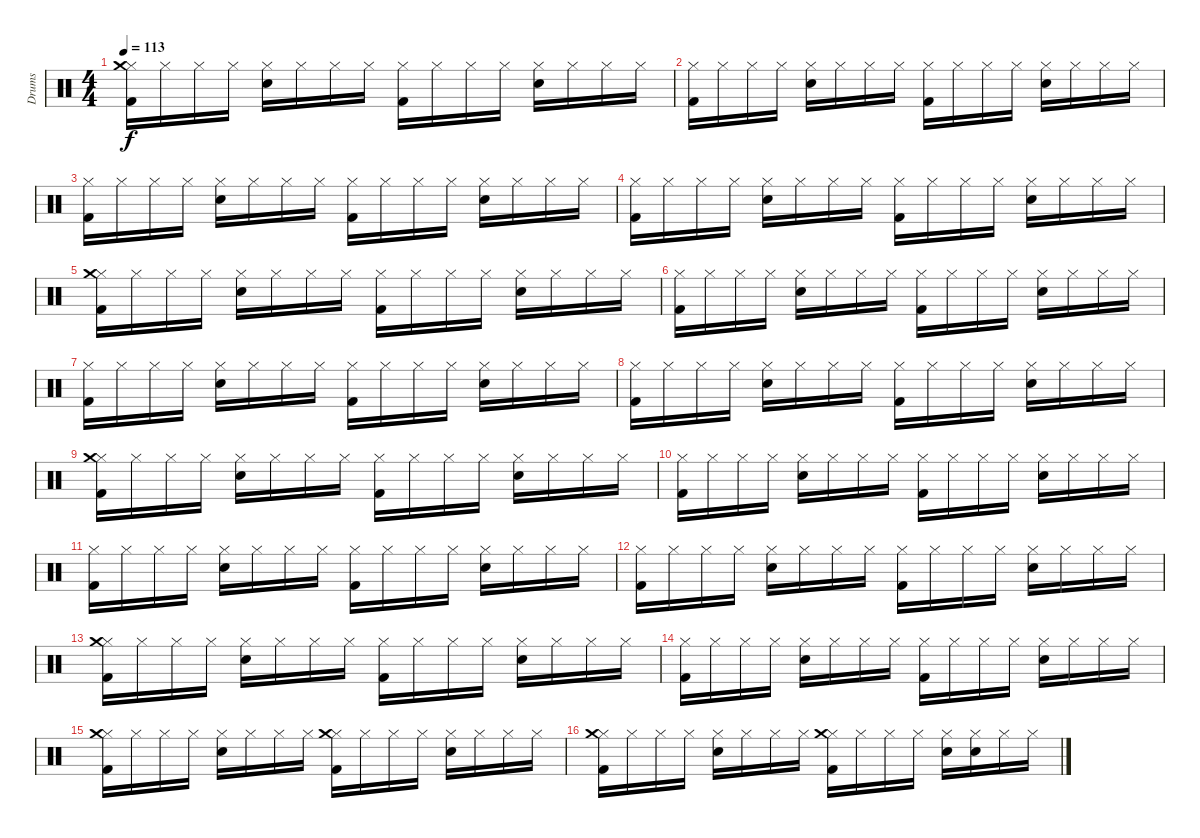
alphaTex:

\track ("Drums" "Drums") {instrument percussion}
\staff {score}
\articulation defaults
\ts (4 4)
\tempo 113
\clef neutral
\ks c
("Hi-Hat (closed)" "Kick (hit) 2" "Crash medium (hit)").16{dy f} "Hi-Hat (closed)".16 "Hi-Hat (closed)".16 "Hi-Hat (closed)".16 ("Hi-Hat (closed)" "Electric Snare (hit)").16 "Hi-Hat (closed)".16 "Hi-Hat (closed)".16 "Hi-Hat (closed)".16 ("Hi-Hat (closed)" "Kick (hit) 2").16 "Hi-Hat (closed)".16 "Hi-Hat (closed)".16 "Hi-Hat (closed)".16 ("Hi-Hat (closed)" "Electric Snare (hit)").16 "Hi-Hat (closed)".16 "Hi-Hat (closed)".16 "Hi-Hat (closed)".16 |
("Hi-Hat (closed)" "Kick (hit) 2").16 "Hi-Hat (closed)".16 "Hi-Hat (closed)".16 "Hi-Hat (closed)".16 ("Hi-Hat (closed)" "Electric Snare (hit)").16 "Hi-Hat (closed)".16 "Hi-Hat (closed)".16 "Hi-Hat (closed)".16 ("Hi-Hat (closed)" "Kick (hit) 2").16 "Hi-Hat (closed)".16 "Hi-Hat (closed)".16 "Hi-Hat (closed)".16 ("Hi-Hat (closed)" "Electric Snare (hit)").16 "Hi-Hat (closed)".16 "Hi-Hat (closed)".16 "Hi-Hat (closed)".16 |
("Hi-Hat (closed)" "Kick (hit) 2").16 "Hi-Hat (closed)".16 "Hi-Hat (closed)".16 "Hi-Hat (closed)".16 ("Hi-Hat (closed)" "Electric Snare (hit)").16 "Hi-Hat (closed)".16 "Hi-Hat (closed)".16 "Hi-Hat (closed)".16 ("Hi-Hat (closed)" "Kick (hit) 2").16 "Hi-Hat (closed)".16 "Hi-Hat (closed)".16 "Hi-Hat (closed)".16 ("Hi-Hat (closed)" "Electric Snare (hit)").16 "Hi-Hat (closed)".16 "Hi-Hat (closed)".16 "Hi-Hat (closed)".16 |
("Hi-Hat (closed)" "Kick (hit) 2").16 "Hi-Hat (closed)".16 "Hi-Hat (closed)".16 "Hi-Hat (closed)".16 ("Hi-Hat (closed)" "Electric Snare (hit)").16 "Hi-Hat (closed)".16 "Hi-Hat (closed)".16 "Hi-Hat (closed)".16 ("Hi-Hat (closed)" "Kick (hit) 2").16 "Hi-Hat (closed)".16 "Hi-Hat (closed)".16 "Hi-Hat (closed)".16 ("Hi-Hat (closed)" "Electric Snare (hit)").16 "Hi-Hat (closed)".16 "Hi-Hat (closed)".16 "Hi-Hat (closed)".16 |
("Hi-Hat (closed)" "Kick (hit) 2" "Crash medium (hit)").16 "Hi-Hat (closed)".16 "Hi-Hat (closed)".16 "Hi-Hat (closed)".16 ("Hi-Hat (closed)" "Electric Snare (hit)").16 "Hi-Hat (closed)".16 "Hi-Hat (closed)".16 "Hi-Hat (closed)".16 ("Hi-Hat (closed)" "Kick (hit) 2").16 "Hi-Hat (closed)".16 "Hi-Hat (closed)".16 "Hi-Hat (closed)".16 ("Hi-Hat (closed)" "Electric Snare (hit)").16 "Hi-Hat (closed)".16 "Hi-Hat (closed)".16 "Hi-Hat (closed)".16 |
("Hi-Hat (closed)" "Kick (hit) 2").16 "Hi-Hat (closed)".16 "Hi-Hat (closed)".16 "Hi-Hat (closed)".16 ("Hi-Hat (closed)" "Electric Snare (hit)").16 "Hi-Hat (closed)".16 "Hi-Hat (closed)".16 "Hi-Hat (closed)".16 ("Hi-Hat (closed)" "Kick (hit) 2").16 "Hi-Hat (closed)".16 "Hi-Hat (closed)".16 "Hi-Hat (closed)".16 ("Hi-Hat (closed)" "Electric Snare (hit)").16 "Hi-Hat (closed)".16 "Hi-Hat (closed)".16 "Hi-Hat (closed)".16 |
("Hi-Hat (closed)" "Kick (hit) 2").16 "Hi-Hat (closed)".16 "Hi-Hat (closed)".16 "Hi-Hat (closed)".16 ("Hi-Hat (closed)" "Electric Snare (hit)").16 "Hi-Hat (closed)".16 "Hi-Hat (closed)".16 "Hi-Hat (closed)".16 ("Hi-Hat (closed)" "Kick (hit) 2").16 "Hi-Hat (closed)".16 "Hi-Hat (closed)".16 "Hi-Hat (closed)".16 ("Hi-Hat (closed)" "Electric Snare (hit)").16 "Hi-Hat (closed)".16 "Hi-Hat (closed)".16 "Hi-Hat (closed)".16 |
("Hi-Hat (closed)" "Kick (hit) 2").16 "Hi-Hat (closed)".16 "Hi-Hat (closed)".16 "Hi-Hat (closed)".16 ("Hi-Hat (closed)" "Electric Snare (hit)").16 "Hi-Hat (closed)".16 "Hi-Hat (closed)".16 "Hi-Hat (closed)".16 ("Hi-Hat (closed)" "Kick (hit) 2").16 "Hi-Hat (closed)".16 "Hi-Hat (closed)".16 "Hi-Hat (closed)".16 ("Hi-Hat (closed)" "Electric Snare (hit)").16 "Hi-Hat (closed)".16 "Hi-Hat (closed)".16 "Hi-Hat (closed)".16 |
("Hi-Hat (closed)" "Kick (hit) 2" "Crash medium (hit)").16 "Hi-Hat (closed)".16 "Hi-Hat (closed)".16 "Hi-Hat (closed)".16 ("Hi-Hat (closed)" "Electric Snare (hit)").16 "Hi-Hat (closed)".16 "Hi-Hat (closed)".16 "Hi-Hat (closed)".16 ("Hi-Hat (closed)" "Kick (hit) 2").16 "Hi-Hat (closed)".16 "Hi-Hat (closed)".16 "Hi-Hat (closed)".16 ("Hi-Hat (closed)" "Electric Snare (hit)").16 "Hi-Hat (closed)".16 "Hi-Hat (closed)".16 "Hi-Hat (closed)".16 |
("Hi-Hat (closed)" "Kick (hit) 2").16 "Hi-Hat (closed)".16 "Hi-Hat (closed)".16 "Hi-Hat (closed)".16 ("Hi-Hat (closed)" "Electric Snare (hit)").16 "Hi-Hat (closed)".16 "Hi-Hat (closed)".16 "Hi-Hat (closed)".16 ("Hi-Hat (closed)" "Kick (hit) 2").16 "Hi-Hat (closed)".16 "Hi-Hat (closed)".16 "Hi-Hat (closed)".16 ("Hi-Hat (closed)" "Electric Snare (hit)").16 "Hi-Hat (closed)".16 "Hi-Hat (closed)".16 "Hi-Hat (closed)".16 |
("Hi-Hat (closed)" "Kick (hit) 2").16 "Hi-Hat (closed)".16 "Hi-Hat (closed)".16 "Hi-Hat (closed)".16 ("Hi-Hat (closed)" "Electric Snare (hit)").16 "Hi-Hat (closed)".16 "Hi-Hat (closed)".16 "Hi-Hat (closed)".16 ("Hi-Hat (closed)" "Kick (hit) 2").16 "Hi-Hat (closed)".16 "Hi-Hat (closed)".16 "Hi-Hat (closed)".16 ("Hi-Hat (closed)" "Electric Snare (hit)").16 "Hi-Hat (closed)".16 "Hi-Hat (closed)".16 "Hi-Hat (closed)".16 |
("Hi-Hat (closed)" "Kick (hit) 2").16 "Hi-Hat (closed)".16 "Hi-Hat (closed)".16 "Hi-Hat (closed)".16 ("Hi-Hat (closed)" "Electric Snare (hit)").16 "Hi-Hat (closed)".16 "Hi-Hat (closed)".16 "Hi-Hat (closed)".16 ("Hi-Hat (closed)" "Kick (hit) 2").16 "Hi-Hat (closed)".16 "Hi-Hat (closed)".16 "Hi-Hat (closed)".16 ("Hi-Hat (closed)" "Electric Snare (hit)").16 "Hi-Hat (closed)".16 "Hi-Hat (closed)".16 "Hi-Hat (closed)".16 |
("Hi-Hat (closed)" "Kick (hit) 2" "Crash medium (hit)").16 "Hi-Hat (closed)".16 "Hi-Hat (closed)".16 "Hi-Hat (closed)".16 ("Hi-Hat (closed)" "Electric Snare (hit)").16 "Hi-Hat (closed)".16 "Hi-Hat (closed)".16 "Hi-Hat (closed)".16 ("Hi-Hat (closed)" "Kick (hit) 2").16 "Hi-Hat (closed)".16 "Hi-Hat (closed)".16 "Hi-Hat (closed)".16 ("Hi-Hat (closed)" "Electric Snare (hit)").16 "Hi-Hat (closed)".16 "Hi-Hat (closed)".16 "Hi-Hat (closed)".16 |
("Hi-Hat (closed)" "Kick (hit) 2").16 "Hi-Hat (closed)".16 "Hi-Hat (closed)".16 "Hi-Hat (closed)".16 ("Hi-Hat (closed)" "Electric Snare (hit)").16 "Hi-Hat (closed)".16 "Hi-Hat (closed)".16 "Hi-Hat (closed)".16 ("Hi-Hat (closed)" "Kick (hit) 2").16 "Hi-Hat (closed)".16 "Hi-Hat (closed)".16 "Hi-Hat (closed)".16 ("Hi-Hat (closed)" "Electric Snare (hit)").16 "Hi-Hat (closed)".16 "Hi-Hat (closed)".16 "Hi-Hat (closed)".16 |
("Hi-Hat (closed)" "Kick (hit) 2" "Crash medium (hit)").16 "Hi-Hat (closed)".16 "Hi-Hat (closed)".16 "Hi-Hat (closed)".16 ("Hi-Hat (closed)" "Electric Snare (hit)").16 "Hi-Hat (closed)".16 "Hi-Hat (closed)".16 "Hi-Hat (closed)".16 ("Hi-Hat (closed)" "Kick (hit) 2" "Crash medium (hit)").16 "Hi-Hat (closed)".16 "Hi-Hat (closed)".16 "Hi-Hat (closed)".16 ("Hi-Hat (closed)" "Electric Snare (hit)").16 "Hi-Hat (closed)".16 "Hi-Hat (closed)".16 "Hi-Hat (closed)".16 |
("Hi-Hat (closed)" "Kick (hit) 2" "Crash medium (hit)").16 "Hi-Hat (closed)".16 "Hi-Hat (closed)".16 "Hi-Hat (closed)".16 ("Hi-Hat (closed)" "Electric Snare (hit)").16 "Hi-Hat (closed)".16 "Hi-Hat (closed)".16 "Hi-Hat (closed)".16 ("Hi-Hat (closed)" "Kick (hit) 2" "Crash medium (hit)").16 "Hi-Hat (closed)".16 "Hi-Hat (closed)".16 "Hi-Hat (closed)".16 ("Hi-Hat (closed)" "Electric Snare (hit)").16 ("Hi-Hat (closed)" "Electric Snare (hit)").16 "Hi-Hat (closed)".16 "Hi-Hat (closed)".16
